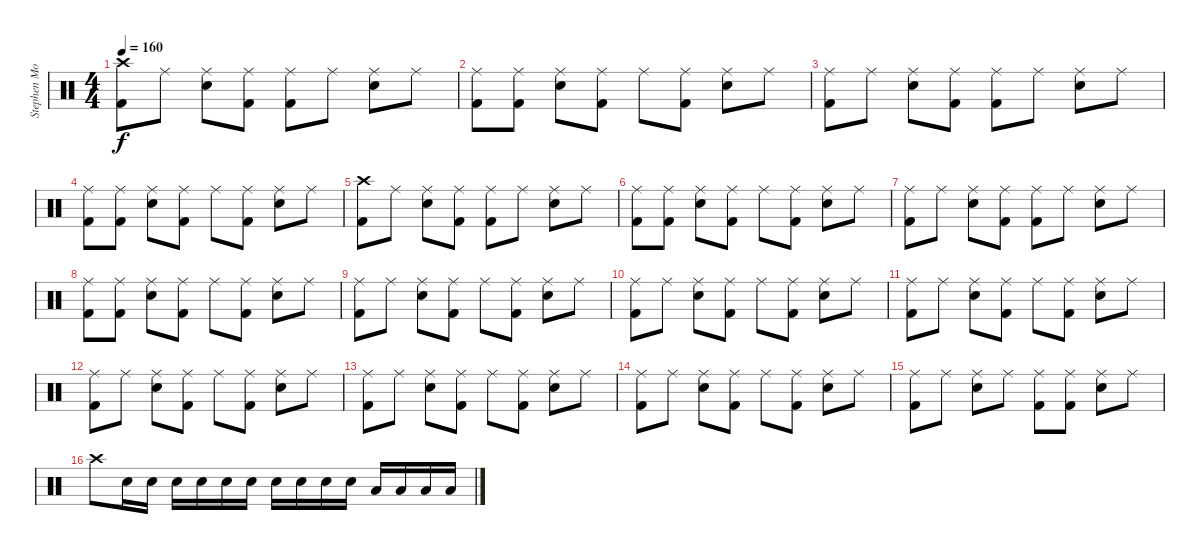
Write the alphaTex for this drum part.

\track ("Stephen Morris - Drums" "Stephen Mo") {instrument percussion}
\staff {score}
\articulation defaults
\ts (4 4)
\tempo 160
\clef neutral
\ks c
("Crash high (hit)" "Kick (hit) 2").8{dy f} "Ride (middle)".8 ("Ride (middle)" "Snare (hit) 2").8 ("Ride (middle)" "Kick (hit) 2").8 ("Ride (middle)" "Kick (hit) 2").8 "Ride (middle)".8 ("Ride (middle)" "Snare (hit) 2").8 "Ride (middle)".8 |
("Ride (middle)" "Kick (hit) 2").8 ("Ride (middle)" "Kick (hit) 2").8 ("Ride (middle)" "Snare (hit) 2").8 ("Ride (middle)" "Kick (hit) 2").8 "Ride (middle)".8 ("Ride (middle)" "Kick (hit) 2").8 ("Ride (middle)" "Snare (hit) 2").8 "Ride (middle)".8 |
("Ride (middle)" "Kick (hit) 2").8 "Ride (middle)".8 ("Ride (middle)" "Snare (hit) 2").8 ("Ride (middle)" "Kick (hit) 2").8 ("Ride (middle)" "Kick (hit) 2").8 "Ride (middle)".8 ("Ride (middle)" "Snare (hit) 2").8 "Ride (middle)".8 |
("Ride (middle)" "Kick (hit) 2").8 ("Ride (middle)" "Kick (hit) 2").8 ("Ride (middle)" "Snare (hit) 2").8 ("Ride (middle)" "Kick (hit) 2").8 "Ride (middle)".8 ("Ride (middle)" "Kick (hit) 2").8 ("Ride (middle)" "Snare (hit) 2").8 "Ride (middle)".8 |
("Crash high (hit)" "Kick (hit) 2").8 "Ride (middle)".8 ("Ride (middle)" "Snare (hit) 2").8 ("Ride (middle)" "Kick (hit) 2").8 ("Ride (middle)" "Kick (hit) 2").8 "Ride (middle)".8 ("Ride (middle)" "Snare (hit) 2").8 "Ride (middle)".8 |
("Ride (middle)" "Kick (hit) 2").8 ("Ride (middle)" "Kick (hit) 2").8 ("Ride (middle)" "Snare (hit) 2").8 ("Ride (middle)" "Kick (hit) 2").8 "Ride (middle)".8 ("Ride (middle)" "Kick (hit) 2").8 ("Ride (middle)" "Snare (hit) 2").8 "Ride (middle)".8 |
("Ride (middle)" "Kick (hit) 2").8 "Ride (middle)".8 ("Ride (middle)" "Snare (hit) 2").8 ("Ride (middle)" "Kick (hit) 2").8 ("Ride (middle)" "Kick (hit) 2").8 "Ride (middle)".8 ("Ride (middle)" "Snare (hit) 2").8 "Ride (middle)".8 |
("Ride (middle)" "Kick (hit) 2").8 ("Ride (middle)" "Kick (hit) 2").8 ("Ride (middle)" "Snare (hit) 2").8 ("Ride (middle)" "Kick (hit) 2").8 "Ride (middle)".8 ("Ride (middle)" "Kick (hit) 2").8 ("Ride (middle)" "Snare (hit) 2").8 "Ride (middle)".8 |
("Ride (middle)" "Kick (hit) 2").8 "Ride (middle)".8 ("Ride (middle)" "Snare (hit) 2").8 ("Ride (middle)" "Kick (hit) 2").8 "Ride (middle)".8 ("Ride (middle)" "Kick (hit) 2").8 ("Ride (middle)" "Snare (hit) 2").8 "Ride (middle)".8 |
("Ride (middle)" "Kick (hit) 2").8 "Ride (middle)".8 ("Ride (middle)" "Snare (hit) 2").8 ("Ride (middle)" "Kick (hit) 2").8 "Ride (middle)".8 ("Ride (middle)" "Kick (hit) 2").8 ("Ride (middle)" "Snare (hit) 2").8 "Ride (middle)".8 |
("Ride (middle)" "Kick (hit) 2").8 "Ride (middle)".8 ("Ride (middle)" "Snare (hit) 2").8 ("Ride (middle)" "Kick (hit) 2").8 "Ride (middle)".8 ("Ride (middle)" "Kick (hit) 2").8 ("Ride (middle)" "Snare (hit) 2").8 "Ride (middle)".8 |
("Ride (middle)" "Kick (hit) 2").8 "Ride (middle)".8 ("Ride (middle)" "Snare (hit) 2").8 ("Ride (middle)" "Kick (hit) 2").8 "Ride (middle)".8 ("Ride (middle)" "Kick (hit) 2").8 ("Ride (middle)" "Snare (hit) 2").8 "Ride (middle)".8 |
("Ride (middle)" "Kick (hit) 2").8 "Ride (middle)".8 ("Ride (middle)" "Snare (hit) 2").8 ("Ride (middle)" "Kick (hit) 2").8 "Ride (middle)".8 ("Ride (middle)" "Kick (hit) 2").8 ("Ride (middle)" "Snare (hit) 2").8 "Ride (middle)".8 |
("Ride (middle)" "Kick (hit) 2").8 "Ride (middle)".8 ("Ride (middle)" "Snare (hit) 2").8 ("Ride (middle)" "Kick (hit) 2").8 "Ride (middle)".8 ("Ride (middle)" "Kick (hit) 2").8 ("Ride (middle)" "Snare (hit) 2").8 "Ride (middle)".8 |
("Ride (middle)" "Kick (hit) 2").8 "Ride (middle)".8 ("Ride (middle)" "Snare (hit) 2").8 "Ride (middle)".8 ("Ride (middle)" "Kick (hit) 2").8 ("Ride (middle)" "Kick (hit) 2").8 ("Ride (middle)" "Snare (hit) 2").8 "Ride (middle)".8 |
"Crash high (hit)".8 "Snare (hit) 2".16 "Snare (hit) 2".16 "Snare (hit) 2".16 "Snare (hit) 2".16 "Snare (hit) 2".16 "Snare (hit) 2".16 "Snare (hit) 2".16 "Snare (hit) 2".16 "Snare (hit) 2".16 "Snare (hit) 2".16 "Low Tom (hit)".16 "Low Floor Tom (hit)".16 "Low Floor Tom (hit)".16 "Low Floor Tom (hit)".16
